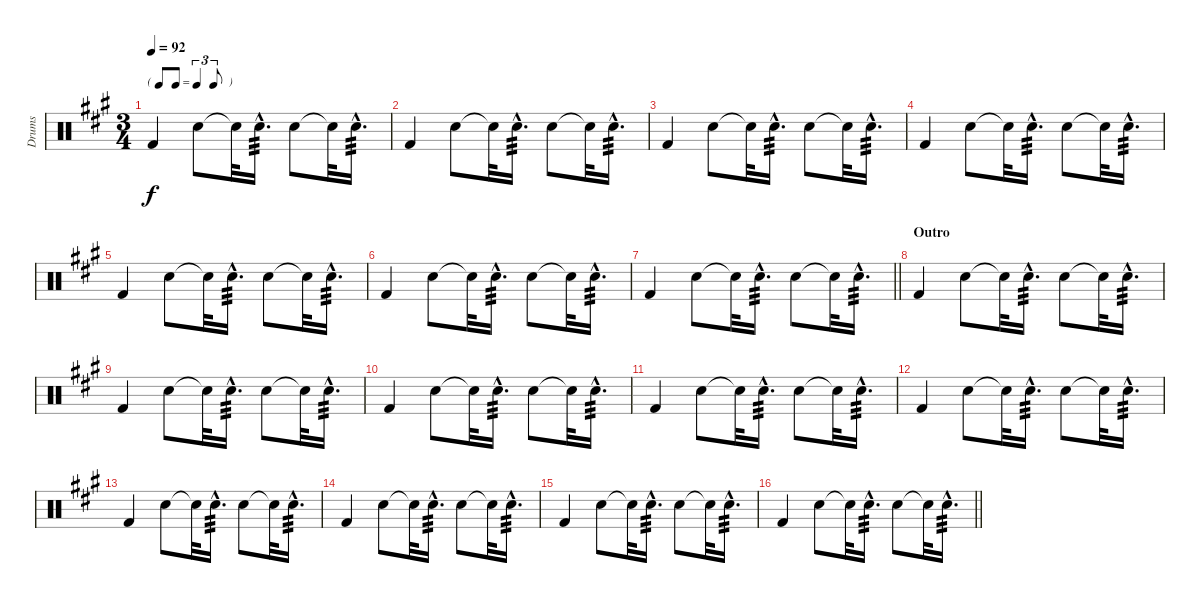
\track ("Drums" "Drums") {instrument percussion}
\staff {score}
\articulation defaults
\ts (3 4)
\tf triplet8th
\tempo 92
\clef neutral
\ks a "Kick (hit) 2".4{dy f} "Snare (hit) 2".8{balance 0} "Snare (hit) 2"{t}.32 "Snare (hit) 2"{hac}.16{d tp 3 balance 16} "Snare (hit) 2".8{balance 0} "Snare (hit) 2"{t}.32 "Snare (hit) 2"{hac}.16{d tp 3 balance 16}
|
"Kick (hit) 2".4 "Snare (hit) 2".8{balance 0} "Snare (hit) 2"{t}.32 "Snare (hit) 2"{hac}.16{d tp 3 balance 16} "Snare (hit) 2".8{balance 0} "Snare (hit) 2"{t}.32 "Snare (hit) 2"{hac}.16{d tp 3 balance 16} |
"Kick (hit) 2".4 "Snare (hit) 2".8{balance 0} "Snare (hit) 2"{t}.32 "Snare (hit) 2"{hac}.16{d tp 3 balance 16} "Snare (hit) 2".8{balance 0} "Snare (hit) 2"{t}.32 "Snare (hit) 2"{hac}.16{d tp 3 balance 16} |
"Kick (hit) 2".4 "Snare (hit) 2".8{balance 0} "Snare (hit) 2"{t}.32 "Snare (hit) 2"{hac}.16{d tp 3 balance 16} "Snare (hit) 2".8{balance 0} "Snare (hit) 2"{t}.32 "Snare (hit) 2"{hac}.16{d tp 3 balance 16} |
"Kick (hit) 2".4 "Snare (hit) 2".8{balance 0} "Snare (hit) 2"{t}.32 "Snare (hit) 2"{hac}.16{d tp 3 balance 16} "Snare (hit) 2".8{balance 0} "Snare (hit) 2"{t}.32 "Snare (hit) 2"{hac}.16{d tp 3 balance 16} |
"Kick (hit) 2".4 "Snare (hit) 2".8{balance 0} "Snare (hit) 2"{t}.32 "Snare (hit) 2"{hac}.16{d tp 3 balance 16} "Snare (hit) 2".8{balance 0} "Snare (hit) 2"{t}.32 "Snare (hit) 2"{hac}.16{d tp 3 balance 16} |
\barLineRight lightlight "Kick (hit) 2".4 "Snare (hit) 2".8{balance 0} "Snare (hit) 2"{t}.32 "Snare (hit) 2"{hac}.16{d tp 3 balance 16} "Snare (hit) 2".8{balance 0} "Snare (hit) 2"{t}.32 "Snare (hit) 2"{hac}.16{d tp 3 balance 16}
|
\section ("" "Outro")
"Kick (hit) 2".4 "Snare (hit) 2".8{balance 0} "Snare (hit) 2"{t}.32 "Snare (hit) 2"{hac}.16{d tp 3 balance 16} "Snare (hit) 2".8{balance 0} "Snare (hit) 2"{t}.32 "Snare (hit) 2"{hac}.16{d tp 3 balance 16} |
"Kick (hit) 2".4{volume 5} "Snare (hit) 2".8{balance 0} "Snare (hit) 2"{t}.32 "Snare (hit) 2"{hac}.16{d tp 3 balance 16} "Snare (hit) 2".8{balance 0} "Snare (hit) 2"{t}.32 "Snare (hit) 2"{hac}.16{d tp 3 balance 16} |
"Kick (hit) 2".4 "Snare (hit) 2".8{balance 0} "Snare (hit) 2"{t}.32 "Snare (hit) 2"{hac}.16{d tp 3 balance 16} "Snare (hit) 2".8{balance 0} "Snare (hit) 2"{t}.32 "Snare (hit) 2"{hac}.16{d tp 3 balance 16} |
"Kick (hit) 2".4 "Snare (hit) 2".8{balance 0} "Snare (hit) 2"{t}.32 "Snare (hit) 2"{hac}.16{d tp 3 balance 16} "Snare (hit) 2".8{balance 0} "Snare (hit) 2"{t}.32 "Snare (hit) 2"{hac}.16{d tp 3 balance 16} |
"Kick (hit) 2".4 "Snare (hit) 2".8{balance 0} "Snare (hit) 2"{t}.32 "Snare (hit) 2"{hac}.16{d tp 3 balance 16} "Snare (hit) 2".8{balance 0} "Snare (hit) 2"{t}.32 "Snare (hit) 2"{hac}.16{d tp 3 balance 16} |
"Kick (hit) 2".4{volume 0} "Snare (hit) 2".8{balance 0} "Snare (hit) 2"{t}.32 "Snare (hit) 2"{hac}.16{d tp 3 balance 16} "Snare (hit) 2".8{balance 0} "Snare (hit) 2"{t}.32 "Snare (hit) 2"{hac}.16{d tp 3 balance 16} |
"Kick (hit) 2".4 "Snare (hit) 2".8{balance 0} "Snare (hit) 2"{t}.32 "Snare (hit) 2"{hac}.16{d tp 3 balance 16} "Snare (hit) 2".8{balance 0} "Snare (hit) 2"{t}.32 "Snare (hit) 2"{hac}.16{d tp 3 balance 16} |
"Kick (hit) 2".4 "Snare (hit) 2".8{balance 0} "Snare (hit) 2"{t}.32 "Snare (hit) 2"{hac}.16{d tp 3 balance 16} "Snare (hit) 2".8{balance 0} "Snare (hit) 2"{t}.32 "Snare (hit) 2"{hac}.16{d tp 3 balance 16} |
\barLineRight lightlight "Kick (hit) 2".4 "Snare (hit) 2".8{balance 0} "Snare (hit) 2"{t}.32 "Snare (hit) 2"{hac}.16{d tp 3 balance 16} "Snare (hit) 2".8{balance 0} "Snare (hit) 2"{t}.32 "Snare (hit) 2"{hac}.16{d tp 3 balance 16}
